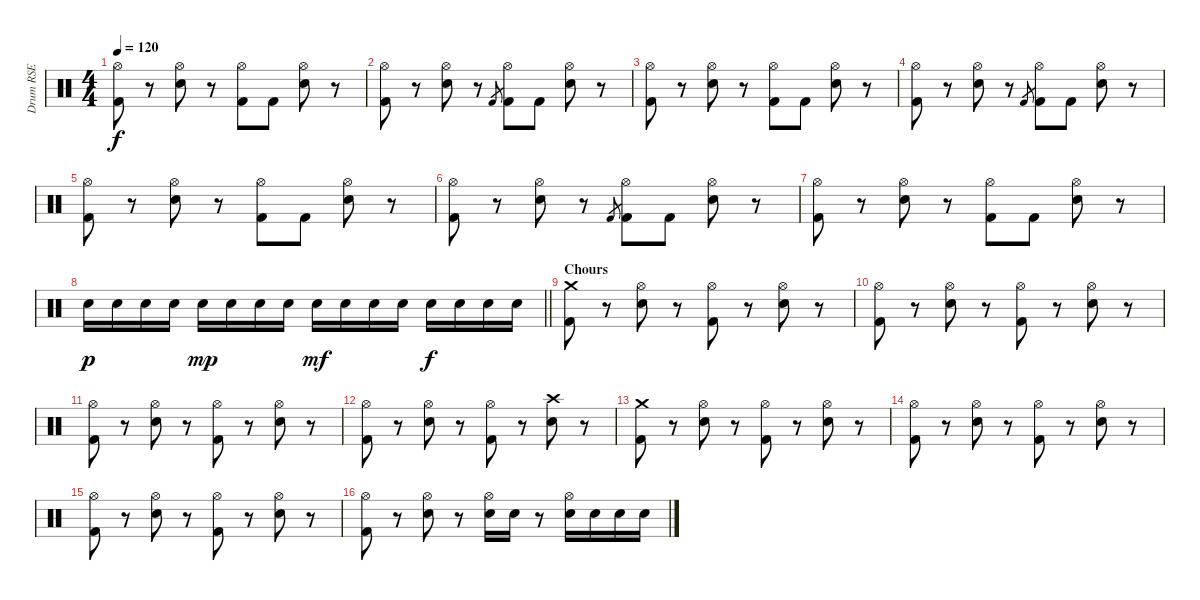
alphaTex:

\track ("Drum RSE" "Drum RSE") {instrument percussion}
\staff {score}
\articulation defaults
\ts (4 4)
\tempo 120
\clef neutral
\ks c
("Hi-Hat (open)" "Kick (hit) 2").8{dy f} r.8 ("Hi-Hat (open)" "Snare (hit) 2").8 r.8 ("Hi-Hat (open)" "Kick (hit) 2").8 "Kick (hit) 2".8 ("Hi-Hat (open)" "Snare (hit) 2").8 r.8 |
("Hi-Hat (open)" "Kick (hit) 2").8 r.8 ("Hi-Hat (open)" "Snare (hit) 2").8 r.8 "Kick (hit) 2".8{gr} ("Hi-Hat (open)" "Kick (hit) 2").8 "Kick (hit) 2".8 ("Hi-Hat (open)" "Snare (hit) 2").8 r.8 |
("Hi-Hat (open)" "Kick (hit) 2").8 r.8 ("Hi-Hat (open)" "Snare (hit) 2").8 r.8 ("Hi-Hat (open)" "Kick (hit) 2").8 "Kick (hit) 2".8 ("Hi-Hat (open)" "Snare (hit) 2").8 r.8 |
("Hi-Hat (open)" "Kick (hit) 2").8 r.8 ("Hi-Hat (open)" "Snare (hit) 2").8 r.8 "Kick (hit) 2".8{gr} ("Hi-Hat (open)" "Kick (hit) 2").8 "Kick (hit) 2".8 ("Hi-Hat (open)" "Snare (hit) 2").8 r.8 |
("Hi-Hat (open)" "Kick (hit) 2").8 r.8 ("Hi-Hat (open)" "Snare (hit) 2").8 r.8 ("Hi-Hat (open)" "Kick (hit) 2").8 "Kick (hit) 2".8 ("Hi-Hat (open)" "Snare (hit) 2").8 r.8 |
("Hi-Hat (open)" "Kick (hit) 2").8 r.8 ("Hi-Hat (open)" "Snare (hit) 2").8 r.8 "Kick (hit) 2".8{gr} ("Hi-Hat (open)" "Kick (hit) 2").8 "Kick (hit) 2".8 ("Hi-Hat (open)" "Snare (hit) 2").8 r.8 |
("Hi-Hat (open)" "Kick (hit) 2").8 r.8 ("Hi-Hat (open)" "Snare (hit) 2").8 r.8 ("Hi-Hat (open)" "Kick (hit) 2").8 "Kick (hit) 2".8 ("Hi-Hat (open)" "Snare (hit) 2").8 r.8 |
\barLineRight lightlight "Snare (hit) 2".16{dy p} "Snare (hit) 2".16 "Snare (hit) 2".16 "Snare (hit) 2".16 "Snare (hit) 2".16{dy mp} "Snare (hit) 2".16 "Snare (hit) 2".16 "Snare (hit) 2".16 "Snare (hit) 2".16{dy mf} "Snare (hit) 2".16 "Snare (hit) 2".16 "Snare (hit) 2".16 "Snare (hit) 2".16{dy f} "Snare (hit) 2".16 "Snare (hit) 2".16 "Snare (hit) 2".16
|
\section ("" "Chours")
("Crash medium (hit)" "Kick (hit) 2").8 r.8 ("Hi-Hat (open)" "Snare (hit) 2").8 r.8 ("Hi-Hat (open)" "Kick (hit) 2").8 r.8 ("Hi-Hat (open)" "Snare (hit) 2").8 r.8 |
("Hi-Hat (open)" "Kick (hit) 2").8 r.8 ("Hi-Hat (open)" "Snare (hit) 2").8 r.8 ("Hi-Hat (open)" "Kick (hit) 2").8 r.8 ("Hi-Hat (open)" "Snare (hit) 2").8 r.8 |
("Hi-Hat (open)" "Kick (hit) 2").8 r.8 ("Hi-Hat (open)" "Snare (hit) 2").8 r.8 ("Hi-Hat (open)" "Kick (hit) 2").8 r.8 ("Hi-Hat (open)" "Snare (hit) 2").8 r.8 |
("Hi-Hat (open)" "Kick (hit) 2").8 r.8 ("Hi-Hat (open)" "Snare (hit) 2").8 r.8 ("Hi-Hat (open)" "Kick (hit) 2").8 r.8 ("Crash high (hit)" "Snare (hit) 2").8 r.8 |
("Crash medium (hit)" "Kick (hit) 2").8 r.8 ("Hi-Hat (open)" "Snare (hit) 2").8 r.8 ("Hi-Hat (open)" "Kick (hit) 2").8 r.8 ("Hi-Hat (open)" "Snare (hit) 2").8 r.8 |
("Hi-Hat (open)" "Kick (hit) 2").8 r.8 ("Hi-Hat (open)" "Snare (hit) 2").8 r.8 ("Hi-Hat (open)" "Kick (hit) 2").8 r.8 ("Hi-Hat (open)" "Snare (hit) 2").8 r.8 |
("Hi-Hat (open)" "Kick (hit) 2").8 r.8 ("Hi-Hat (open)" "Snare (hit) 2").8 r.8 ("Hi-Hat (open)" "Kick (hit) 2").8 r.8 ("Hi-Hat (open)" "Snare (hit) 2").8 r.8 |
("Hi-Hat (open)" "Kick (hit) 2").8 r.8 ("Hi-Hat (open)" "Snare (hit) 2").8 r.8 ("Hi-Hat (open)" "Snare (hit) 2").16 "Snare (hit) 2".16 r.8 ("Hi-Hat (open)" "Snare (hit) 2").16 "Snare (hit) 2".16 "Snare (hit) 2".16 "Snare (hit) 2".16
